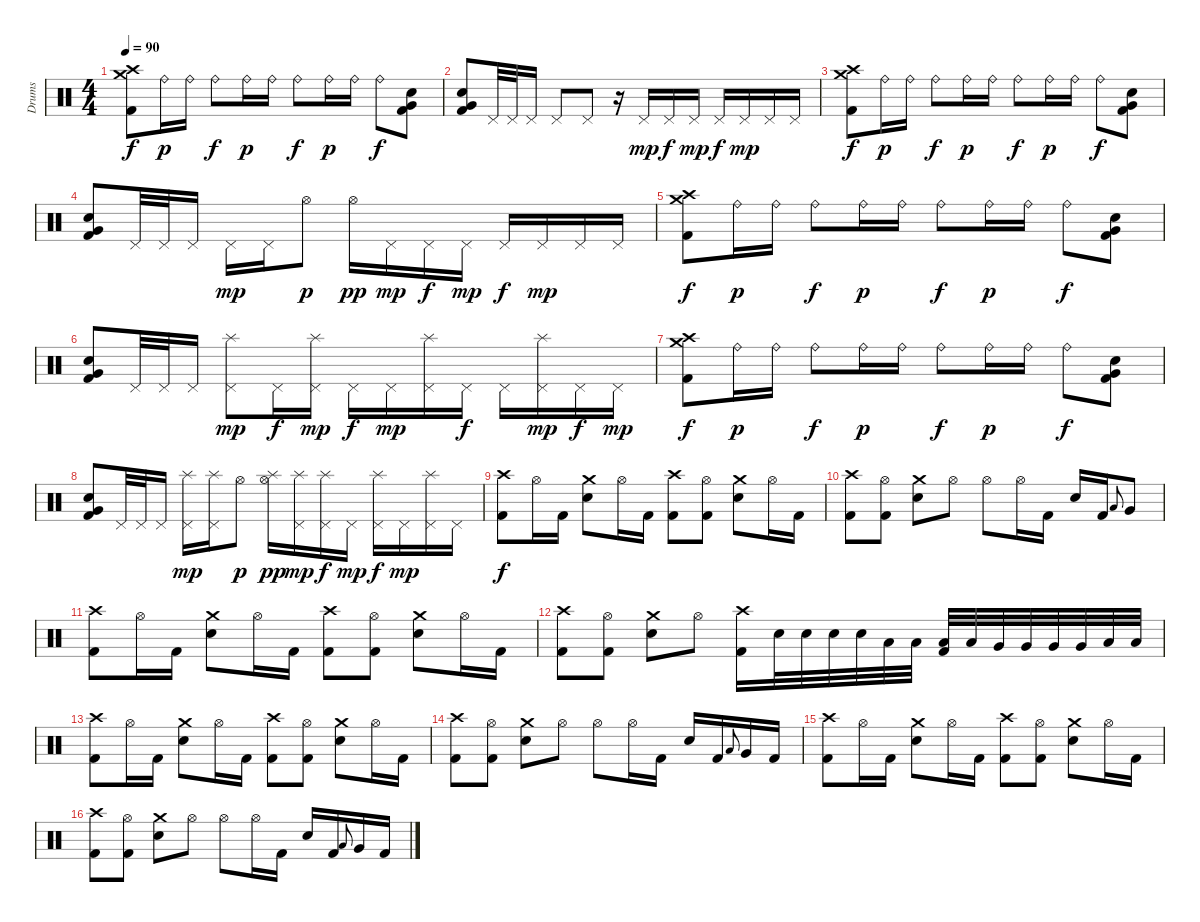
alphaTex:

\track ("Drums" "Drums") {instrument percussion}
\staff {score}
\articulation defaults
\ts (4 4)
\tempo 90
\clef neutral
\ks c
("Crash high (hit)" "Crash medium (hit)" "Kick (hit) 2").8{dy f} "Ride (bell)".16{dy p} "Ride (bell)".16 "Ride (bell)".8{dy f} "Ride (bell)".16{dy p} "Ride (bell)".16 "Ride (bell)".8{dy f} "Ride (bell)".16{dy p} "Ride (bell)".16 "Ride (bell)".8{dy f} ("Electric Snare (hit)" "Very Low Tom (hit)" "Kick (hit) 2").8 |
("Electric Snare (hit)" "Very Low Tom (hit)" "Kick (hit) 2").8 "Pedal Hi-Hat (hit)".32 "Pedal Hi-Hat (hit)".32 "Pedal Hi-Hat (hit)".16 "Pedal Hi-Hat (hit)".8 "Pedal Hi-Hat (hit)".8 r.16 "Pedal Hi-Hat (hit)".16{dy mp} "Pedal Hi-Hat (hit)".16{dy f} "Pedal Hi-Hat (hit)".16{dy mp} "Pedal Hi-Hat (hit)".16{dy f} "Pedal Hi-Hat (hit)".16{dy mp} "Pedal Hi-Hat (hit)".16 "Pedal Hi-Hat (hit)".16 |
("Crash high (hit)" "Crash medium (hit)" "Kick (hit) 2").8{dy f} "Ride (bell)".16{dy p} "Ride (bell)".16 "Ride (bell)".8{dy f} "Ride (bell)".16{dy p} "Ride (bell)".16 "Ride (bell)".8{dy f} "Ride (bell)".16{dy p} "Ride (bell)".16 "Ride (bell)".8{dy f} ("Electric Snare (hit)" "Very Low Tom (hit)" "Kick (hit) 2").8 |
("Electric Snare (hit)" "Very Low Tom (hit)" "Kick (hit) 2").8 "Pedal Hi-Hat (hit)".32 "Pedal Hi-Hat (hit)".32 "Pedal Hi-Hat (hit)".16 "Pedal Hi-Hat (hit)".16{dy mp} "Pedal Hi-Hat (hit)".16 "Hi-Hat (open)".8{dy p} "Hi-Hat (open)".16{dy pp} "Pedal Hi-Hat (hit)".16{dy mp} "Pedal Hi-Hat (hit)".16{dy f} "Pedal Hi-Hat (hit)".16{dy mp} "Pedal Hi-Hat (hit)".16{dy f} "Pedal Hi-Hat (hit)".16{dy mp} "Pedal Hi-Hat (hit)".16 "Pedal Hi-Hat (hit)".16 |
("Crash high (hit)" "Crash medium (hit)" "Kick (hit) 2").8{dy f} "Ride (bell)".16{dy p} "Ride (bell)".16 "Ride (bell)".8{dy f} "Ride (bell)".16{dy p} "Ride (bell)".16 "Ride (bell)".8{dy f} "Ride (bell)".16{dy p} "Ride (bell)".16 "Ride (bell)".8{dy f} ("Electric Snare (hit)" "Very Low Tom (hit)" "Kick (hit) 2").8 |
("Electric Snare (hit)" "Very Low Tom (hit)" "Kick (hit) 2").8 "Pedal Hi-Hat (hit)".32 "Pedal Hi-Hat (hit)".32 "Pedal Hi-Hat (hit)".16 ("Splash (hit)" "Pedal Hi-Hat (hit)").8{dy mp balance 16} "Pedal Hi-Hat (hit)".16{dy f balance 8} ("Splash (hit)" "Pedal Hi-Hat (hit)").16{dy mp} "Pedal Hi-Hat (hit)".16{dy f balance 8} "Pedal Hi-Hat (hit)".16{dy mp} ("Splash (hit)" "Pedal Hi-Hat (hit)").16{balance 16} "Pedal Hi-Hat (hit)".16{dy f balance 8} "Pedal Hi-Hat (hit)".16 ("Splash (hit)" "Pedal Hi-Hat (hit)").16{dy mp balance 0} "Pedal Hi-Hat (hit)".16{dy f balance 8} "Pedal Hi-Hat (hit)".16{dy mp} |
("Crash high (hit)" "Crash medium (hit)" "Kick (hit) 2").8{dy f} "Ride (bell)".16{dy p} "Ride (bell)".16 "Ride (bell)".8{dy f} "Ride (bell)".16{dy p} "Ride (bell)".16 "Ride (bell)".8{dy f} "Ride (bell)".16{dy p} "Ride (bell)".16 "Ride (bell)".8{dy f} ("Electric Snare (hit)" "Very Low Tom (hit)" "Kick (hit) 2").8 |
("Electric Snare (hit)" "Very Low Tom (hit)" "Kick (hit) 2").8 "Pedal Hi-Hat (hit)".32 "Pedal Hi-Hat (hit)".32 "Pedal Hi-Hat (hit)".16 ("Splash (hit)" "Pedal Hi-Hat (hit)").16{dy mp} ("Splash (hit)" "Pedal Hi-Hat (hit)").16 "Hi-Hat (open)".8{dy p} ("Splash (hit)" "Hi-Hat (open)").16{dy pp} ("Splash (hit)" "Pedal Hi-Hat (hit)").16{dy mp} ("Splash (hit)" "Pedal Hi-Hat (hit)").16{dy f} "Pedal Hi-Hat (hit)".16{dy mp} ("Splash (hit)" "Pedal Hi-Hat (hit)").16{dy f} "Pedal Hi-Hat (hit)".16{dy mp} ("Splash (hit)" "Pedal Hi-Hat (hit)").16 "Pedal Hi-Hat (hit)".16 |
("Crash high (hit)" "Kick (hit) 2").8{dy f} "Hi-Hat (open)".16 "Kick (hit) 2".16 ("Crash medium (hit)" "Electric Snare (hit)").8 "Hi-Hat (open)".16 "Kick (hit) 2".16 ("Crash high (hit)" "Kick (hit) 2").8 ("Hi-Hat (open)" "Kick (hit) 2").8 ("Crash medium (hit)" "Electric Snare (hit)").8 "Hi-Hat (open)".16 "Kick (hit) 2".16 |
("Crash high (hit)" "Kick (hit) 2").8 ("Hi-Hat (open)" "Kick (hit) 2").8 ("Crash medium (hit)" "Electric Snare (hit)").8 "Hi-Hat (open)".8 "Hi-Hat (open)".8 "Hi-Hat (open)".16 "Kick (hit) 2".16 "Electric Snare (hit)".16 "Kick (hit) 2".16 "Low Floor Tom (hit)".8{gr onbeat} "Very Low Tom (hit)".8 |
("Crash high (hit)" "Kick (hit) 2").8 "Hi-Hat (open)".16 "Kick (hit) 2".16 ("Crash medium (hit)" "Electric Snare (hit)").8 "Hi-Hat (open)".16 "Kick (hit) 2".16 ("Crash high (hit)" "Kick (hit) 2").8 ("Hi-Hat (open)" "Kick (hit) 2").8 ("Crash medium (hit)" "Electric Snare (hit)").8 "Hi-Hat (open)".16 "Kick (hit) 2".16 |
("Crash high (hit)" "Kick (hit) 2").8 ("Hi-Hat (open)" "Kick (hit) 2").8 ("Crash medium (hit)" "Electric Snare (hit)").8 "Hi-Hat (open)".8 ("Crash high (hit)" "Kick (hit) 2").16 "Electric Snare (hit)".32 "Electric Snare (hit)".32 "Electric Snare (hit)".32 "Electric Snare (hit)".32 "Low Tom (hit)".32 "Low Tom (hit)".32 ("Low Tom (hit)" "Kick (hit) 2").32 "Low Tom (hit)".32 "Very Low Tom (hit)".32 "Very Low Tom (hit)".32 "Very Low Tom (hit)".32 "Very Low Tom (hit)".32 "Low Floor Tom (hit)".32 "Low Floor Tom (hit)".32 |
("Crash high (hit)" "Kick (hit) 2").8 "Hi-Hat (open)".16 "Kick (hit) 2".16 ("Crash medium (hit)" "Electric Snare (hit)").8 "Hi-Hat (open)".16 "Kick (hit) 2".16 ("Crash high (hit)" "Kick (hit) 2").8 ("Hi-Hat (open)" "Kick (hit) 2").8 ("Crash medium (hit)" "Electric Snare (hit)").8 "Hi-Hat (open)".16 "Kick (hit) 2".16 |
("Crash high (hit)" "Kick (hit) 2").8 ("Hi-Hat (open)" "Kick (hit) 2").8 ("Crash medium (hit)" "Electric Snare (hit)").8 "Hi-Hat (open)".8 "Hi-Hat (open)".8 "Hi-Hat (open)".16 "Kick (hit) 2".16 "Electric Snare (hit)".16 "Kick (hit) 2".16 "Low Floor Tom (hit)".8{gr onbeat} "Very Low Tom (hit)".16 "Kick (hit) 2".16 |
("Crash high (hit)" "Kick (hit) 2").8 "Hi-Hat (open)".16 "Kick (hit) 2".16 ("Crash medium (hit)" "Electric Snare (hit)").8 "Hi-Hat (open)".16 "Kick (hit) 2".16 ("Crash high (hit)" "Kick (hit) 2").8 ("Hi-Hat (open)" "Kick (hit) 2").8 ("Crash medium (hit)" "Electric Snare (hit)").8 "Hi-Hat (open)".16 "Kick (hit) 2".16 |
("Crash high (hit)" "Kick (hit) 2").8 ("Hi-Hat (open)" "Kick (hit) 2").8 ("Crash medium (hit)" "Electric Snare (hit)").8 "Hi-Hat (open)".8 "Hi-Hat (open)".8 "Hi-Hat (open)".16 "Kick (hit) 2".16 "Electric Snare (hit)".16 "Kick (hit) 2".16 "Low Floor Tom (hit)".8{gr onbeat} "Very Low Tom (hit)".16 "Kick (hit) 2".16
